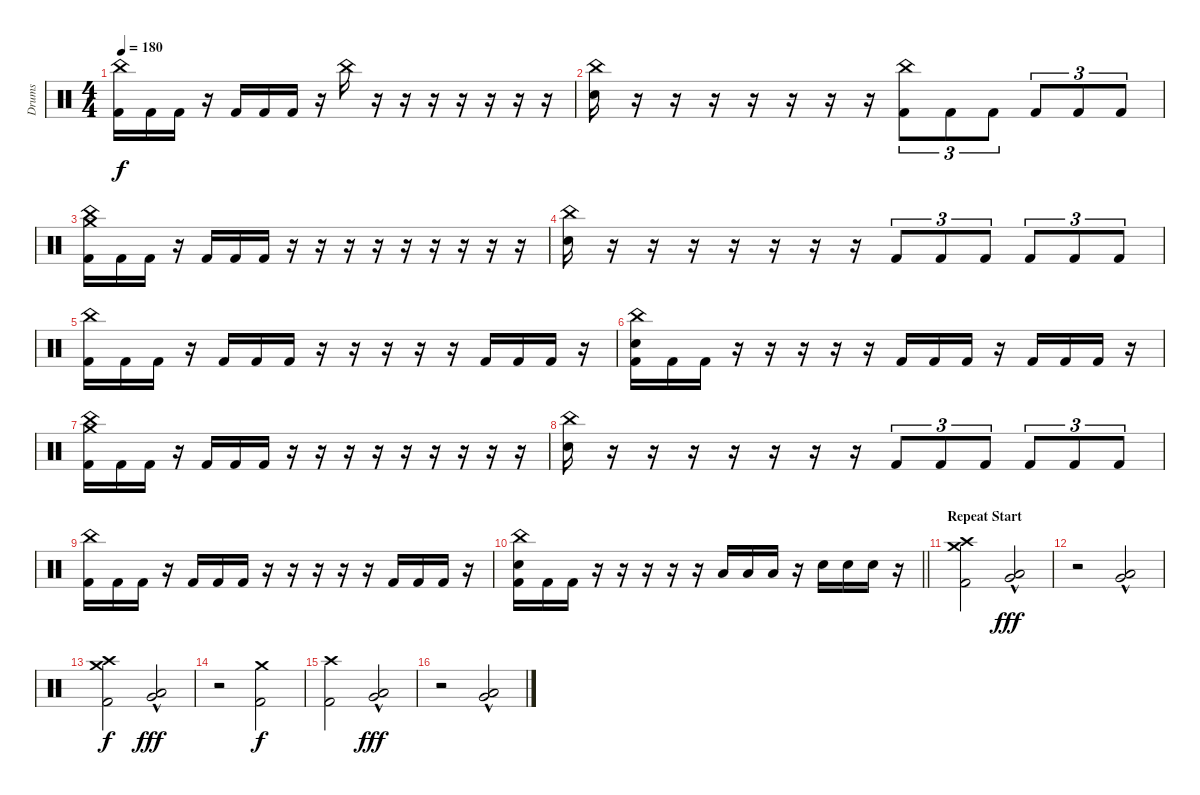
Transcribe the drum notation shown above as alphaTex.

\track ("Drums" "Drums") {instrument percussion}
\staff {score}
\articulation defaults
\ts (4 4)
\tempo 180
\clef neutral
\ks c
("China (hit)" "Kick (hit) 2").16{dy f} "Kick (hit) 2".16 "Kick (hit) 2".16 r.16 "Kick (hit) 2".16 "Kick (hit) 2".16 "Kick (hit) 2".16 r.16 "China (hit)".16 r.16 r.16 r.16 r.16 r.16 r.16 r.16 |
("China (hit)" "Electric Snare (hit)").16 r.16 r.16 r.16 r.16 r.16 r.16 r.16 ("China (hit)" "Kick (hit) 2").8{tu (3 2)} "Kick (hit) 2".8{tu (3 2)} "Kick (hit) 2".8{tu (3 2)} "Kick (hit) 2".8{tu (3 2)} "Kick (hit) 2".8{tu (3 2)} "Kick (hit) 2".8{tu (3 2)} |
("Crash medium (hit)" "China (hit)" "Kick (hit) 2").16 "Kick (hit) 2".16 "Kick (hit) 2".16 r.16 "Kick (hit) 2".16 "Kick (hit) 2".16 "Kick (hit) 2".16 r.16 r.16 r.16 r.16 r.16 r.16 r.16 r.16 r.16 |
("China (hit)" "Electric Snare (hit)").16 r.16 r.16 r.16 r.16 r.16 r.16 r.16 "Kick (hit) 2".8{tu (3 2)} "Kick (hit) 2".8{tu (3 2)} "Kick (hit) 2".8{tu (3 2)} "Kick (hit) 2".8{tu (3 2)} "Kick (hit) 2".8{tu (3 2)} "Kick (hit) 2".8{tu (3 2)} |
("China (hit)" "Kick (hit) 2").16 "Kick (hit) 2".16 "Kick (hit) 2".16 r.16 "Kick (hit) 2".16 "Kick (hit) 2".16 "Kick (hit) 2".16 r.16 r.16 r.16 r.16 r.16 "Kick (hit) 2".16 "Kick (hit) 2".16 "Kick (hit) 2".16 r.16 |
("China (hit)" "Electric Snare (hit)" "Kick (hit) 2").16 "Kick (hit) 2".16 "Kick (hit) 2".16 r.16 r.16 r.16 r.16 r.16 "Kick (hit) 2".16 "Kick (hit) 2".16 "Kick (hit) 2".16 r.16 "Kick (hit) 2".16 "Kick (hit) 2".16 "Kick (hit) 2".16 r.16 |
("Crash medium (hit)" "China (hit)" "Kick (hit) 2").16 "Kick (hit) 2".16 "Kick (hit) 2".16 r.16 "Kick (hit) 2".16 "Kick (hit) 2".16 "Kick (hit) 2".16 r.16 r.16 r.16 r.16 r.16 r.16 r.16 r.16 r.16 |
("China (hit)" "Electric Snare (hit)").16 r.16 r.16 r.16 r.16 r.16 r.16 r.16 "Kick (hit) 2".8{tu (3 2)} "Kick (hit) 2".8{tu (3 2)} "Kick (hit) 2".8{tu (3 2)} "Kick (hit) 2".8{tu (3 2)} "Kick (hit) 2".8{tu (3 2)} "Kick (hit) 2".8{tu (3 2)} |
("China (hit)" "Kick (hit) 2").16 "Kick (hit) 2".16 "Kick (hit) 2".16 r.16 "Kick (hit) 2".16 "Kick (hit) 2".16 "Kick (hit) 2".16 r.16 r.16 r.16 r.16 r.16 "Kick (hit) 2".16 "Kick (hit) 2".16 "Kick (hit) 2".16 r.16 |
\barLineRight lightlight
("China (hit)" "Electric Snare (hit)" "Kick (hit) 2").16 "Kick (hit) 2".16 "Kick (hit) 2".16 r.16 r.16 r.16 r.16 r.16 "Low Floor Tom (hit)".16 "Low Floor Tom (hit)".16 "Low Floor Tom (hit)".16 r.16 "Electric Snare (hit)".16 "Electric Snare (hit)".16 "Electric Snare (hit)".16 r.16 |
\section ("" "Repeat Start")
("Crash high (hit)" "Crash medium (hit)" "Kick (hit) 2").2 ("Low Floor Tom (hit)"{hac} "Very Low Tom (hit)"{hac}).2{dy fff} |
r.2 ("Low Floor Tom (hit)"{hac} "Very Low Tom (hit)"{hac}).2 |
("Crash high (hit)" "Crash medium (hit)" "Kick (hit) 2").2{dy f} ("Low Floor Tom (hit)"{hac} "Very Low Tom (hit)"{hac}).2{dy fff} |
r.2 ("Crash medium (hit)" "Kick (hit) 2").2{dy f} |
("Crash high (hit)" "Kick (hit) 2").2 ("Low Floor Tom (hit)"{hac} "Very Low Tom (hit)"{hac}).2{dy fff} |
r.2 ("Low Floor Tom (hit)"{hac} "Very Low Tom (hit)"{hac}).2
